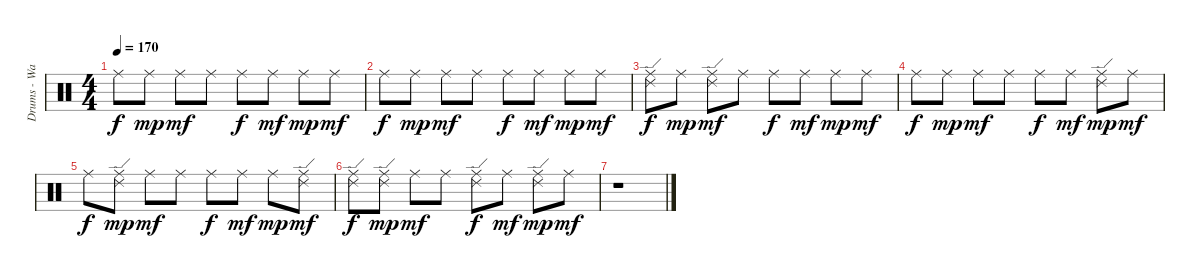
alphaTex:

\track ("Drums - Ward" "Drums - Wa") {instrument percussion}
\staff {score}
\articulation defaults
\ts (4 4)
\tempo 170
\clef neutral
\ks c "Ride (middle)".8{dy f} "Ride (middle)".8{dy mp} "Ride (middle)".8{dy mf} "Ride (middle)".8 "Ride (middle)".8{dy f} "Ride (middle)".8{dy mf} "Ride (middle)".8{dy mp} "Ride (middle)".8{dy mf}
|
"Ride (middle)".8{dy f} "Ride (middle)".8{dy mp} "Ride (middle)".8{dy mf} "Ride (middle)".8 "Ride (middle)".8{dy f} "Ride (middle)".8{dy mf} "Ride (middle)".8{dy mp} "Ride (middle)".8{dy mf} |
("Ride (edge) 2" "Ride (middle)").8{dy f volume 0} "Ride (middle)".8{dy mp} ("Ride (edge) 2" "Ride (middle)").8{dy mf} "Ride (middle)".8 "Ride (middle)".8{dy f} "Ride (middle)".8{dy mf} "Ride (middle)".8{dy mp} "Ride (middle)".8{dy mf} |
"Ride (middle)".8{dy f} "Ride (middle)".8{dy mp} "Ride (middle)".8{dy mf} "Ride (middle)".8 "Ride (middle)".8{dy f} "Ride (middle)".8{dy mf} ("Ride (edge) 2" "Ride (middle)").8{dy mp} "Ride (middle)".8{dy mf} |
"Ride (middle)".8{dy f} ("Ride (edge) 2" "Ride (middle)").8{dy mp} "Ride (middle)".8{dy mf} "Ride (middle)".8 "Ride (middle)".8{dy f} "Ride (middle)".8{dy mf} "Ride (middle)".8{dy mp} ("Ride (edge) 2" "Ride (middle)").8{dy mf} |
("Ride (edge) 2" "Ride (middle)").8{dy f} ("Ride (edge) 2" "Ride (middle)").8{dy mp} "Ride (middle)".8{dy mf} "Ride (middle)".8 ("Ride (edge) 2" "Ride (middle)").8{dy f} "Ride (middle)".8{dy mf} ("Ride (edge) 2" "Ride (middle)").8{dy mp} "Ride (middle)".8{dy mf} |
r.1
